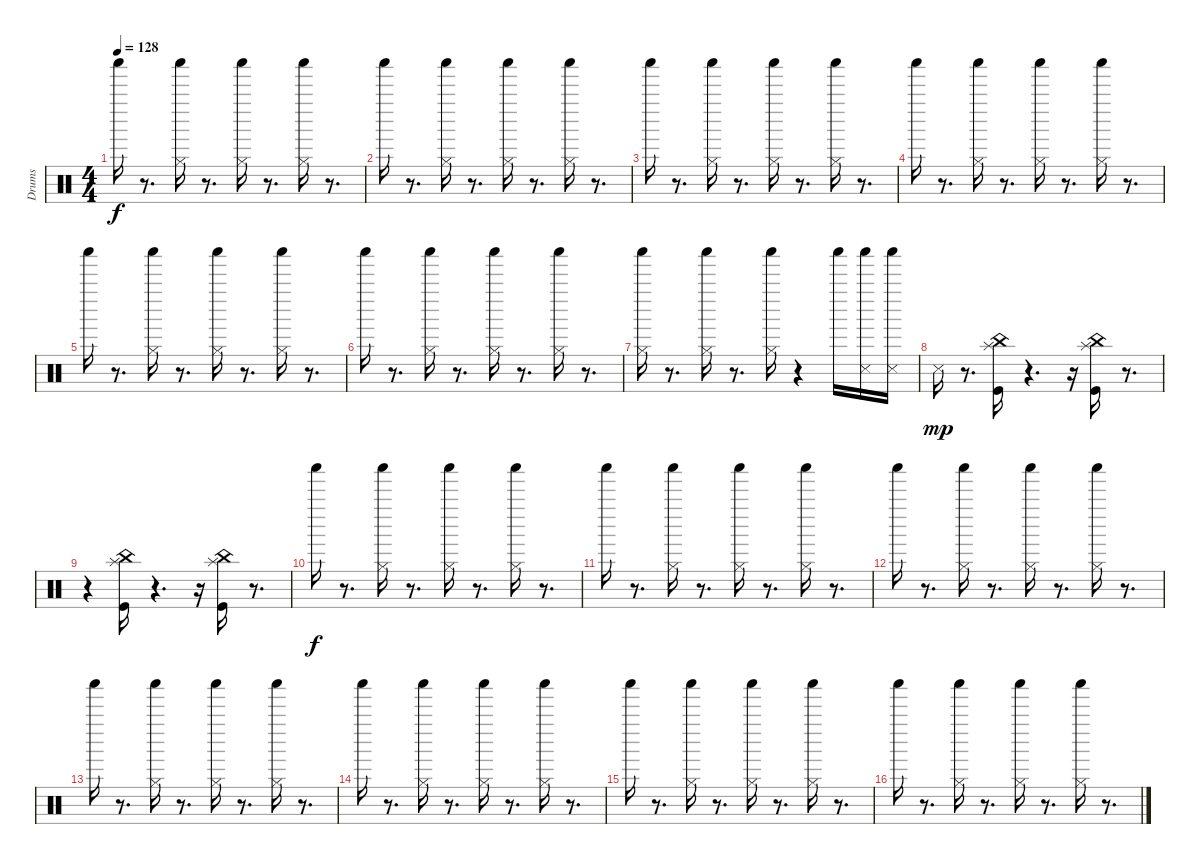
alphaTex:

\track ("Drums  " "Drums  ") {instrument percussion}
\staff {score}
\articulation defaults
\ts (4 4)
\tempo 128
\clef neutral
\ks c "Shaker (hit)".16{dy f}
r.8{d} ("Shaker (hit)" "Hi-Hat (closed)").16 r.8{d} ("Shaker (hit)" "Hi-Hat (closed)").16 r.8{d} ("Shaker (hit)" "Hi-Hat (closed)").16 r.8{d} |
"Shaker (hit)".16 r.8{d} ("Shaker (hit)" "Hi-Hat (closed)").16 r.8{d} ("Shaker (hit)" "Hi-Hat (closed)").16 r.8{d} ("Shaker (hit)" "Hi-Hat (closed)").16 r.8{d} |
"Shaker (hit)".16 r.8{d} ("Shaker (hit)" "Hi-Hat (closed)").16 r.8{d} ("Shaker (hit)" "Hi-Hat (closed)").16 r.8{d} ("Shaker (hit)" "Hi-Hat (closed)").16 r.8{d} |
"Shaker (hit)".16 r.8{d} ("Shaker (hit)" "Hi-Hat (closed)").16 r.8{d} ("Shaker (hit)" "Hi-Hat (closed)").16 r.8{d} ("Shaker (hit)" "Hi-Hat (closed)").16 r.8{d} |
"Shaker (hit)".16 r.8{d} ("Shaker (hit)" "Hi-Hat (closed)").16 r.8{d} ("Shaker (hit)" "Hi-Hat (closed)").16 r.8{d} ("Shaker (hit)" "Hi-Hat (closed)").16 r.8{d} |
"Shaker (hit)".16 r.8{d} ("Shaker (hit)" "Hi-Hat (closed)").16 r.8{d} ("Shaker (hit)" "Hi-Hat (closed)").16 r.8{d} ("Shaker (hit)" "Hi-Hat (closed)").16 r.8{d} |
("Shaker (hit)" "Hi-Hat (closed)").16 r.8{d} ("Shaker (hit)" "Hi-Hat (closed)").16 r.8{d} ("Shaker (hit)" "Hi-Hat (closed)").16 r.4 "Shaker (hit)".16 ("Snare (side stick) 3" "Shaker (hit)").16 ("Snare (side stick) 3" "Shaker (hit)").16 |
"Snare (side stick) 3".16{dy mp} r.8{d} ("Splash (hit)" "Kick (hit)" "China (hit)").16 r.4{d} r.16 ("Splash (hit)" "Kick (hit)" "China (hit)").16 r.8{d} |
r.4 ("Splash (hit)" "Kick (hit)" "China (hit)").16 r.4{d} r.16 ("Splash (hit)" "Kick (hit)" "China (hit)").16 r.8{d} |
"Shaker (hit)".16{dy f} r.8{d} ("Shaker (hit)" "Hi-Hat (closed)").16 r.8{d} ("Shaker (hit)" "Hi-Hat (closed)").16 r.8{d} ("Shaker (hit)" "Hi-Hat (closed)").16 r.8{d} |
"Shaker (hit)".16 r.8{d} ("Shaker (hit)" "Hi-Hat (closed)").16 r.8{d} ("Shaker (hit)" "Hi-Hat (closed)").16 r.8{d} ("Shaker (hit)" "Hi-Hat (closed)").16 r.8{d} |
"Shaker (hit)".16 r.8{d} ("Shaker (hit)" "Hi-Hat (closed)").16 r.8{d} ("Shaker (hit)" "Hi-Hat (closed)").16 r.8{d} ("Shaker (hit)" "Hi-Hat (closed)").16 r.8{d} |
"Shaker (hit)".16 r.8{d} ("Shaker (hit)" "Hi-Hat (closed)").16 r.8{d} ("Shaker (hit)" "Hi-Hat (closed)").16 r.8{d} ("Shaker (hit)" "Hi-Hat (closed)").16 r.8{d} |
"Shaker (hit)".16 r.8{d} ("Shaker (hit)" "Hi-Hat (closed)").16 r.8{d} ("Shaker (hit)" "Hi-Hat (closed)").16 r.8{d} ("Shaker (hit)" "Hi-Hat (closed)").16 r.8{d} |
"Shaker (hit)".16 r.8{d} ("Shaker (hit)" "Hi-Hat (closed)").16 r.8{d} ("Shaker (hit)" "Hi-Hat (closed)").16 r.8{d} ("Shaker (hit)" "Hi-Hat (closed)").16 r.8{d} |
"Shaker (hit)".16 r.8{d} ("Shaker (hit)" "Hi-Hat (closed)").16 r.8{d} ("Shaker (hit)" "Hi-Hat (closed)").16 r.8{d} ("Shaker (hit)" "Hi-Hat (closed)").16 r.8{d}
